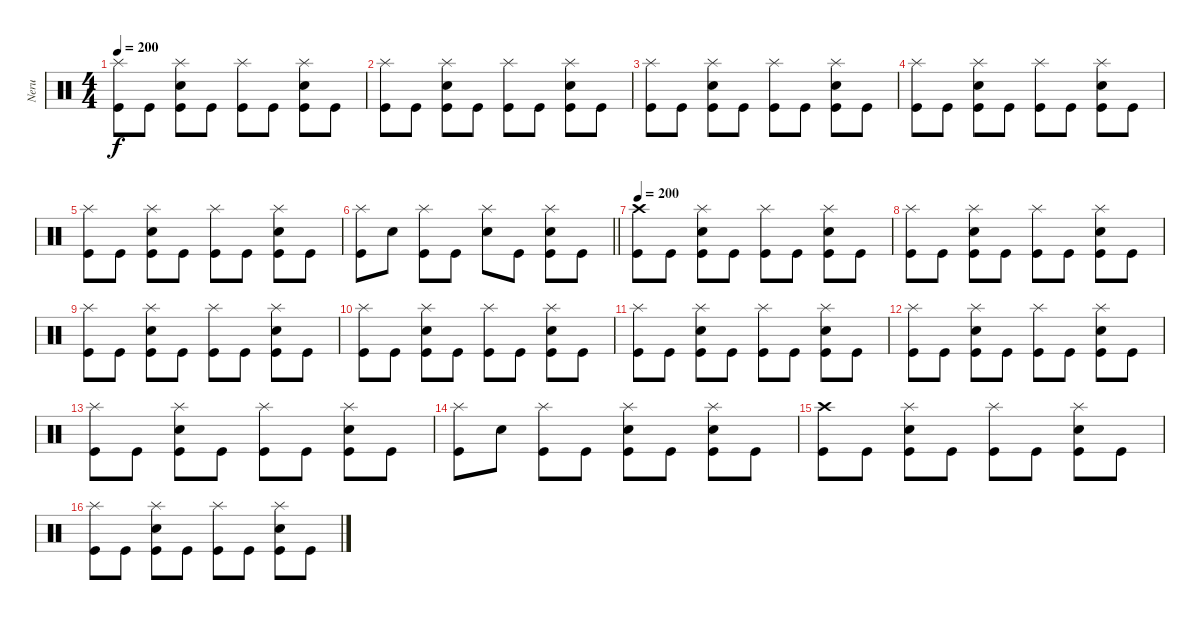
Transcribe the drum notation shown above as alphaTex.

\track ("Neru" "Neru") {instrument percussion}
\staff {score}
\articulation defaults
\ts (4 4)
\tempo 200
\clef neutral
\ks c
("Splash (hit)" "Kick (hit)").8{dy f} "Kick (hit)".8 ("Splash (hit)" "Electric Snare (hit)" "Kick (hit)").8 "Kick (hit)".8 ("Splash (hit)" "Kick (hit)").8 "Kick (hit)".8 ("Splash (hit)" "Electric Snare (hit)" "Kick (hit)").8 "Kick (hit)".8 |
("Splash (hit)" "Kick (hit)").8 "Kick (hit)".8 ("Splash (hit)" "Electric Snare (hit)" "Kick (hit)").8 "Kick (hit)".8 ("Splash (hit)" "Kick (hit)").8 "Kick (hit)".8 ("Splash (hit)" "Electric Snare (hit)" "Kick (hit)").8 "Kick (hit)".8 |
("Splash (hit)" "Kick (hit)").8 "Kick (hit)".8 ("Splash (hit)" "Electric Snare (hit)" "Kick (hit)").8 "Kick (hit)".8 ("Splash (hit)" "Kick (hit)").8 "Kick (hit)".8 ("Splash (hit)" "Electric Snare (hit)" "Kick (hit)").8 "Kick (hit)".8 |
("Splash (hit)" "Kick (hit)").8 "Kick (hit)".8 ("Splash (hit)" "Electric Snare (hit)" "Kick (hit)").8 "Kick (hit)".8 ("Splash (hit)" "Kick (hit)").8 "Kick (hit)".8 ("Splash (hit)" "Electric Snare (hit)" "Kick (hit)").8 "Kick (hit)".8 |
("Splash (hit)" "Kick (hit)").8 "Kick (hit)".8 ("Splash (hit)" "Electric Snare (hit)" "Kick (hit)").8 "Kick (hit)".8 ("Splash (hit)" "Kick (hit)").8 "Kick (hit)".8 ("Splash (hit)" "Electric Snare (hit)" "Kick (hit)").8 "Kick (hit)".8 |
\barLineRight lightlight
("Splash (hit)" "Kick (hit)").8 "Electric Snare (hit)".8 ("Splash (hit)" "Kick (hit)").8 "Kick (hit)".8 ("Splash (hit)" "Electric Snare (hit)").8 "Kick (hit)".8 ("Splash (hit)" "Electric Snare (hit)" "Kick (hit)").8 "Kick (hit)".8 |
\tempo 200
("Crash high (hit)" "Kick (hit)").8 "Kick (hit)".8 ("Splash (hit)" "Electric Snare (hit)" "Kick (hit)").8 "Kick (hit)".8 ("Splash (hit)" "Kick (hit)").8 "Kick (hit)".8 ("Splash (hit)" "Electric Snare (hit)" "Kick (hit)").8 "Kick (hit)".8 |
("Splash (hit)" "Kick (hit)").8 "Kick (hit)".8 ("Splash (hit)" "Electric Snare (hit)" "Kick (hit)").8 "Kick (hit)".8 ("Splash (hit)" "Kick (hit)").8 "Kick (hit)".8 ("Splash (hit)" "Electric Snare (hit)" "Kick (hit)").8 "Kick (hit)".8 |
("Splash (hit)" "Kick (hit)").8 "Kick (hit)".8 ("Splash (hit)" "Electric Snare (hit)" "Kick (hit)").8 "Kick (hit)".8 ("Splash (hit)" "Kick (hit)").8 "Kick (hit)".8 ("Splash (hit)" "Electric Snare (hit)" "Kick (hit)").8 "Kick (hit)".8 |
("Splash (hit)" "Kick (hit)").8 "Kick (hit)".8 ("Splash (hit)" "Electric Snare (hit)" "Kick (hit)").8 "Kick (hit)".8 ("Splash (hit)" "Kick (hit)").8 "Kick (hit)".8 ("Splash (hit)" "Electric Snare (hit)" "Kick (hit)").8 "Kick (hit)".8 |
("Splash (hit)" "Kick (hit)").8 "Kick (hit)".8 ("Splash (hit)" "Electric Snare (hit)" "Kick (hit)").8 "Kick (hit)".8 ("Splash (hit)" "Kick (hit)").8 "Kick (hit)".8 ("Splash (hit)" "Electric Snare (hit)" "Kick (hit)").8 "Kick (hit)".8 |
("Splash (hit)" "Kick (hit)").8 "Kick (hit)".8 ("Splash (hit)" "Electric Snare (hit)" "Kick (hit)").8 "Kick (hit)".8 ("Splash (hit)" "Kick (hit)").8 "Kick (hit)".8 ("Splash (hit)" "Electric Snare (hit)" "Kick (hit)").8 "Kick (hit)".8 |
("Splash (hit)" "Kick (hit)").8 "Kick (hit)".8 ("Splash (hit)" "Electric Snare (hit)" "Kick (hit)").8 "Kick (hit)".8 ("Splash (hit)" "Kick (hit)").8 "Kick (hit)".8 ("Splash (hit)" "Electric Snare (hit)" "Kick (hit)").8 "Kick (hit)".8 |
("Splash (hit)" "Kick (hit)").8 "Electric Snare (hit)".8 ("Splash (hit)" "Kick (hit)").8 "Kick (hit)".8 ("Splash (hit)" "Electric Snare (hit)" "Kick (hit)").8 "Kick (hit)".8 ("Splash (hit)" "Electric Snare (hit)" "Kick (hit)").8 "Kick (hit)".8 |
("Crash high (hit)" "Kick (hit)").8 "Kick (hit)".8 ("Splash (hit)" "Electric Snare (hit)" "Kick (hit)").8 "Kick (hit)".8 ("Splash (hit)" "Kick (hit)").8 "Kick (hit)".8 ("Splash (hit)" "Electric Snare (hit)" "Kick (hit)").8 "Kick (hit)".8 |
("Splash (hit)" "Kick (hit)").8 "Kick (hit)".8 ("Splash (hit)" "Electric Snare (hit)" "Kick (hit)").8 "Kick (hit)".8 ("Splash (hit)" "Kick (hit)").8 "Kick (hit)".8 ("Splash (hit)" "Electric Snare (hit)" "Kick (hit)").8 "Kick (hit)".8
